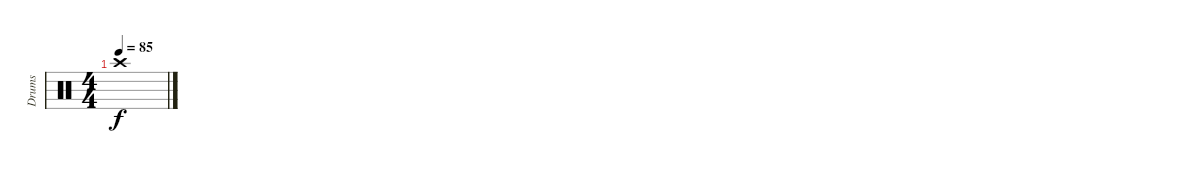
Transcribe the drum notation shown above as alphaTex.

\track ("Drums" "Drums") {instrument percussion}
\staff {score}
\articulation defaults
\ts (4 4)
\tempo 85
\clef neutral
\ks c "Crash high (hit)".1{dy f}
